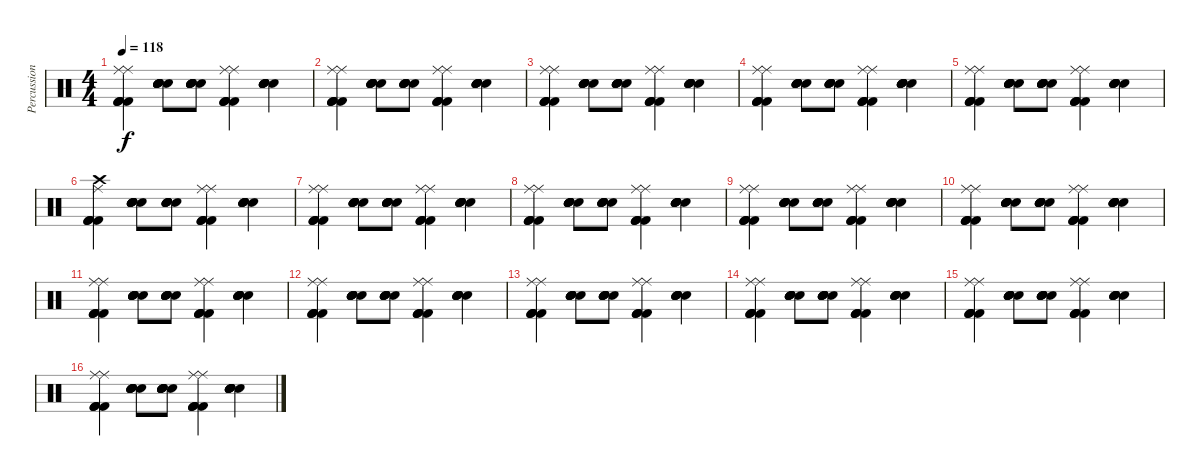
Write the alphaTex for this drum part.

\track ("Percussion" "Percussion") {instrument percussion}
\staff {score}
\articulation defaults
\ts (4 4)
\tempo 118
\clef neutral
\ks c
("Ride (middle)" "Kick (hit) 2" "Kick (hit) 2" "Kick (hit) 2" "Kick (hit) 2" "Ride (middle)").4{dy f} ("Electric Snare (hit)" "Electric Snare (hit)" "Electric Snare (hit)" "Electric Snare (hit)" "Electric Snare (hit)" "Electric Snare (hit)").8 ("Electric Snare (hit)" "Electric Snare (hit)" "Electric Snare (hit)" "Electric Snare (hit)" "Electric Snare (hit)" "Electric Snare (hit)").8 ("Ride (middle)" "Kick (hit) 2" "Kick (hit) 2" "Kick (hit) 2" "Kick (hit) 2" "Ride (middle)").4 ("Electric Snare (hit)" "Electric Snare (hit)" "Electric Snare (hit)" "Electric Snare (hit)" "Electric Snare (hit)" "Electric Snare (hit)").4 |
("Ride (middle)" "Kick (hit) 2" "Kick (hit) 2" "Kick (hit) 2" "Kick (hit) 2" "Ride (middle)").4 ("Electric Snare (hit)" "Electric Snare (hit)" "Electric Snare (hit)" "Electric Snare (hit)" "Electric Snare (hit)" "Electric Snare (hit)").8 ("Electric Snare (hit)" "Electric Snare (hit)" "Electric Snare (hit)" "Electric Snare (hit)" "Electric Snare (hit)" "Electric Snare (hit)").8 ("Ride (middle)" "Kick (hit) 2" "Kick (hit) 2" "Kick (hit) 2" "Kick (hit) 2" "Ride (middle)").4 ("Electric Snare (hit)" "Electric Snare (hit)" "Electric Snare (hit)" "Electric Snare (hit)" "Electric Snare (hit)" "Electric Snare (hit)").4 |
("Ride (middle)" "Kick (hit) 2" "Kick (hit) 2" "Kick (hit) 2" "Kick (hit) 2" "Ride (middle)").4 ("Electric Snare (hit)" "Electric Snare (hit)" "Electric Snare (hit)" "Electric Snare (hit)" "Electric Snare (hit)" "Electric Snare (hit)").8 ("Electric Snare (hit)" "Electric Snare (hit)" "Electric Snare (hit)" "Electric Snare (hit)" "Electric Snare (hit)" "Electric Snare (hit)").8 ("Ride (middle)" "Kick (hit) 2" "Kick (hit) 2" "Kick (hit) 2" "Kick (hit) 2" "Ride (middle)").4 ("Electric Snare (hit)" "Electric Snare (hit)" "Electric Snare (hit)" "Electric Snare (hit)" "Electric Snare (hit)" "Electric Snare (hit)").4 |
("Ride (middle)" "Kick (hit) 2" "Kick (hit) 2" "Kick (hit) 2" "Kick (hit) 2" "Ride (middle)").4 ("Electric Snare (hit)" "Electric Snare (hit)" "Electric Snare (hit)" "Electric Snare (hit)" "Electric Snare (hit)" "Electric Snare (hit)").8 ("Electric Snare (hit)" "Electric Snare (hit)" "Electric Snare (hit)" "Electric Snare (hit)" "Electric Snare (hit)" "Electric Snare (hit)").8 ("Ride (middle)" "Kick (hit) 2" "Kick (hit) 2" "Kick (hit) 2" "Kick (hit) 2" "Ride (middle)").4 ("Electric Snare (hit)" "Electric Snare (hit)" "Electric Snare (hit)" "Electric Snare (hit)" "Electric Snare (hit)" "Electric Snare (hit)").4 |
("Ride (middle)" "Kick (hit) 2" "Kick (hit) 2" "Kick (hit) 2" "Kick (hit) 2" "Ride (middle)").4 ("Electric Snare (hit)" "Electric Snare (hit)" "Electric Snare (hit)" "Electric Snare (hit)" "Electric Snare (hit)" "Electric Snare (hit)").8 ("Electric Snare (hit)" "Electric Snare (hit)" "Electric Snare (hit)" "Electric Snare (hit)" "Electric Snare (hit)" "Electric Snare (hit)").8 ("Ride (middle)" "Kick (hit) 2" "Kick (hit) 2" "Kick (hit) 2" "Kick (hit) 2" "Ride (middle)").4 ("Snare (hit) 2" "Snare (hit) 2" "Snare (hit) 2" "Snare (hit) 2" "Snare (hit) 2" "Snare (hit) 2").4 |
("Crash high (hit)" "Kick (hit) 2" "Kick (hit) 2" "Kick (hit) 2" "Kick (hit) 2" "Ride (middle)").4 ("Electric Snare (hit)" "Electric Snare (hit)" "Electric Snare (hit)" "Electric Snare (hit)" "Electric Snare (hit)" "Electric Snare (hit)").8 ("Electric Snare (hit)" "Electric Snare (hit)" "Electric Snare (hit)" "Electric Snare (hit)" "Electric Snare (hit)" "Electric Snare (hit)").8 ("Ride (middle)" "Kick (hit) 2" "Kick (hit) 2" "Kick (hit) 2" "Kick (hit) 2" "Ride (middle)").4 ("Electric Snare (hit)" "Electric Snare (hit)" "Electric Snare (hit)" "Electric Snare (hit)" "Electric Snare (hit)" "Electric Snare (hit)").4 |
("Ride (middle)" "Kick (hit) 2" "Kick (hit) 2" "Kick (hit) 2" "Kick (hit) 2" "Ride (middle)").4 ("Electric Snare (hit)" "Electric Snare (hit)" "Electric Snare (hit)" "Electric Snare (hit)" "Electric Snare (hit)" "Electric Snare (hit)").8 ("Electric Snare (hit)" "Electric Snare (hit)" "Electric Snare (hit)" "Electric Snare (hit)" "Electric Snare (hit)" "Electric Snare (hit)").8 ("Ride (middle)" "Kick (hit) 2" "Kick (hit) 2" "Kick (hit) 2" "Kick (hit) 2" "Ride (middle)").4 ("Electric Snare (hit)" "Electric Snare (hit)" "Electric Snare (hit)" "Electric Snare (hit)" "Electric Snare (hit)" "Electric Snare (hit)").4 |
("Ride (middle)" "Kick (hit) 2" "Kick (hit) 2" "Kick (hit) 2" "Kick (hit) 2" "Ride (middle)").4 ("Electric Snare (hit)" "Electric Snare (hit)" "Electric Snare (hit)" "Electric Snare (hit)" "Electric Snare (hit)" "Electric Snare (hit)").8 ("Electric Snare (hit)" "Electric Snare (hit)" "Electric Snare (hit)" "Electric Snare (hit)" "Electric Snare (hit)" "Electric Snare (hit)").8 ("Ride (middle)" "Kick (hit) 2" "Kick (hit) 2" "Kick (hit) 2" "Kick (hit) 2" "Ride (middle)").4 ("Electric Snare (hit)" "Electric Snare (hit)" "Electric Snare (hit)" "Electric Snare (hit)" "Electric Snare (hit)" "Electric Snare (hit)").4 |
("Ride (middle)" "Kick (hit) 2" "Kick (hit) 2" "Kick (hit) 2" "Kick (hit) 2" "Ride (middle)").4 ("Electric Snare (hit)" "Electric Snare (hit)" "Electric Snare (hit)" "Electric Snare (hit)" "Electric Snare (hit)" "Electric Snare (hit)").8 ("Electric Snare (hit)" "Electric Snare (hit)" "Electric Snare (hit)" "Electric Snare (hit)" "Electric Snare (hit)" "Electric Snare (hit)").8 ("Ride (middle)" "Kick (hit) 2" "Kick (hit) 2" "Kick (hit) 2" "Kick (hit) 2" "Ride (middle)").4 ("Electric Snare (hit)" "Electric Snare (hit)" "Electric Snare (hit)" "Electric Snare (hit)" "Electric Snare (hit)" "Electric Snare (hit)").4 |
("Ride (middle)" "Kick (hit) 2" "Kick (hit) 2" "Kick (hit) 2" "Kick (hit) 2" "Ride (middle)").4 ("Electric Snare (hit)" "Electric Snare (hit)" "Electric Snare (hit)" "Electric Snare (hit)" "Electric Snare (hit)" "Electric Snare (hit)").8 ("Electric Snare (hit)" "Electric Snare (hit)" "Electric Snare (hit)" "Electric Snare (hit)" "Electric Snare (hit)" "Electric Snare (hit)").8 ("Ride (middle)" "Kick (hit) 2" "Kick (hit) 2" "Kick (hit) 2" "Kick (hit) 2" "Ride (middle)").4 ("Electric Snare (hit)" "Electric Snare (hit)" "Electric Snare (hit)" "Electric Snare (hit)" "Electric Snare (hit)" "Electric Snare (hit)").4 |
("Ride (middle)" "Kick (hit) 2" "Kick (hit) 2" "Kick (hit) 2" "Kick (hit) 2" "Ride (middle)").4 ("Electric Snare (hit)" "Electric Snare (hit)" "Electric Snare (hit)" "Electric Snare (hit)" "Electric Snare (hit)" "Electric Snare (hit)").8 ("Electric Snare (hit)" "Electric Snare (hit)" "Electric Snare (hit)" "Electric Snare (hit)" "Electric Snare (hit)" "Electric Snare (hit)").8 ("Ride (middle)" "Kick (hit) 2" "Kick (hit) 2" "Kick (hit) 2" "Kick (hit) 2" "Ride (middle)").4 ("Electric Snare (hit)" "Electric Snare (hit)" "Electric Snare (hit)" "Electric Snare (hit)" "Electric Snare (hit)" "Electric Snare (hit)").4 |
("Ride (middle)" "Kick (hit) 2" "Kick (hit) 2" "Kick (hit) 2" "Kick (hit) 2" "Ride (middle)").4 ("Electric Snare (hit)" "Electric Snare (hit)" "Electric Snare (hit)" "Electric Snare (hit)" "Electric Snare (hit)" "Electric Snare (hit)").8 ("Electric Snare (hit)" "Electric Snare (hit)" "Electric Snare (hit)" "Electric Snare (hit)" "Electric Snare (hit)" "Electric Snare (hit)").8 ("Ride (middle)" "Kick (hit) 2" "Kick (hit) 2" "Kick (hit) 2" "Kick (hit) 2" "Ride (middle)").4 ("Electric Snare (hit)" "Electric Snare (hit)" "Electric Snare (hit)" "Electric Snare (hit)" "Electric Snare (hit)" "Electric Snare (hit)").4 |
("Ride (middle)" "Kick (hit) 2" "Kick (hit) 2" "Kick (hit) 2" "Kick (hit) 2" "Ride (middle)").4 ("Electric Snare (hit)" "Electric Snare (hit)" "Electric Snare (hit)" "Electric Snare (hit)" "Electric Snare (hit)" "Electric Snare (hit)").8 ("Electric Snare (hit)" "Electric Snare (hit)" "Electric Snare (hit)" "Electric Snare (hit)" "Electric Snare (hit)" "Electric Snare (hit)").8 ("Ride (middle)" "Kick (hit) 2" "Kick (hit) 2" "Kick (hit) 2" "Kick (hit) 2" "Ride (middle)").4 ("Electric Snare (hit)" "Electric Snare (hit)" "Electric Snare (hit)" "Electric Snare (hit)" "Electric Snare (hit)" "Electric Snare (hit)").4 |
("Ride (middle)" "Kick (hit) 2" "Kick (hit) 2" "Kick (hit) 2" "Kick (hit) 2" "Ride (middle)").4 ("Electric Snare (hit)" "Electric Snare (hit)" "Electric Snare (hit)" "Electric Snare (hit)" "Electric Snare (hit)" "Electric Snare (hit)").8 ("Electric Snare (hit)" "Electric Snare (hit)" "Electric Snare (hit)" "Electric Snare (hit)" "Electric Snare (hit)" "Electric Snare (hit)").8 ("Ride (middle)" "Kick (hit) 2" "Kick (hit) 2" "Kick (hit) 2" "Kick (hit) 2" "Ride (middle)").4 ("Electric Snare (hit)" "Electric Snare (hit)" "Electric Snare (hit)" "Electric Snare (hit)" "Electric Snare (hit)" "Electric Snare (hit)").4 |
("Ride (middle)" "Kick (hit) 2" "Kick (hit) 2" "Kick (hit) 2" "Kick (hit) 2" "Ride (middle)").4 ("Electric Snare (hit)" "Electric Snare (hit)" "Electric Snare (hit)" "Electric Snare (hit)" "Electric Snare (hit)" "Electric Snare (hit)").8 ("Electric Snare (hit)" "Electric Snare (hit)" "Electric Snare (hit)" "Electric Snare (hit)" "Electric Snare (hit)" "Electric Snare (hit)").8 ("Ride (middle)" "Kick (hit) 2" "Kick (hit) 2" "Kick (hit) 2" "Kick (hit) 2" "Ride (middle)").4 ("Electric Snare (hit)" "Electric Snare (hit)" "Electric Snare (hit)" "Electric Snare (hit)" "Electric Snare (hit)" "Electric Snare (hit)").4 |
("Ride (middle)" "Kick (hit) 2" "Kick (hit) 2" "Kick (hit) 2" "Kick (hit) 2" "Ride (middle)").4 ("Electric Snare (hit)" "Electric Snare (hit)" "Electric Snare (hit)" "Electric Snare (hit)" "Electric Snare (hit)" "Electric Snare (hit)").8 ("Electric Snare (hit)" "Electric Snare (hit)" "Electric Snare (hit)" "Electric Snare (hit)" "Electric Snare (hit)" "Electric Snare (hit)").8 ("Ride (middle)" "Kick (hit) 2" "Kick (hit) 2" "Kick (hit) 2" "Kick (hit) 2" "Ride (middle)").4 ("Electric Snare (hit)" "Electric Snare (hit)" "Electric Snare (hit)" "Electric Snare (hit)" "Electric Snare (hit)" "Electric Snare (hit)").4
